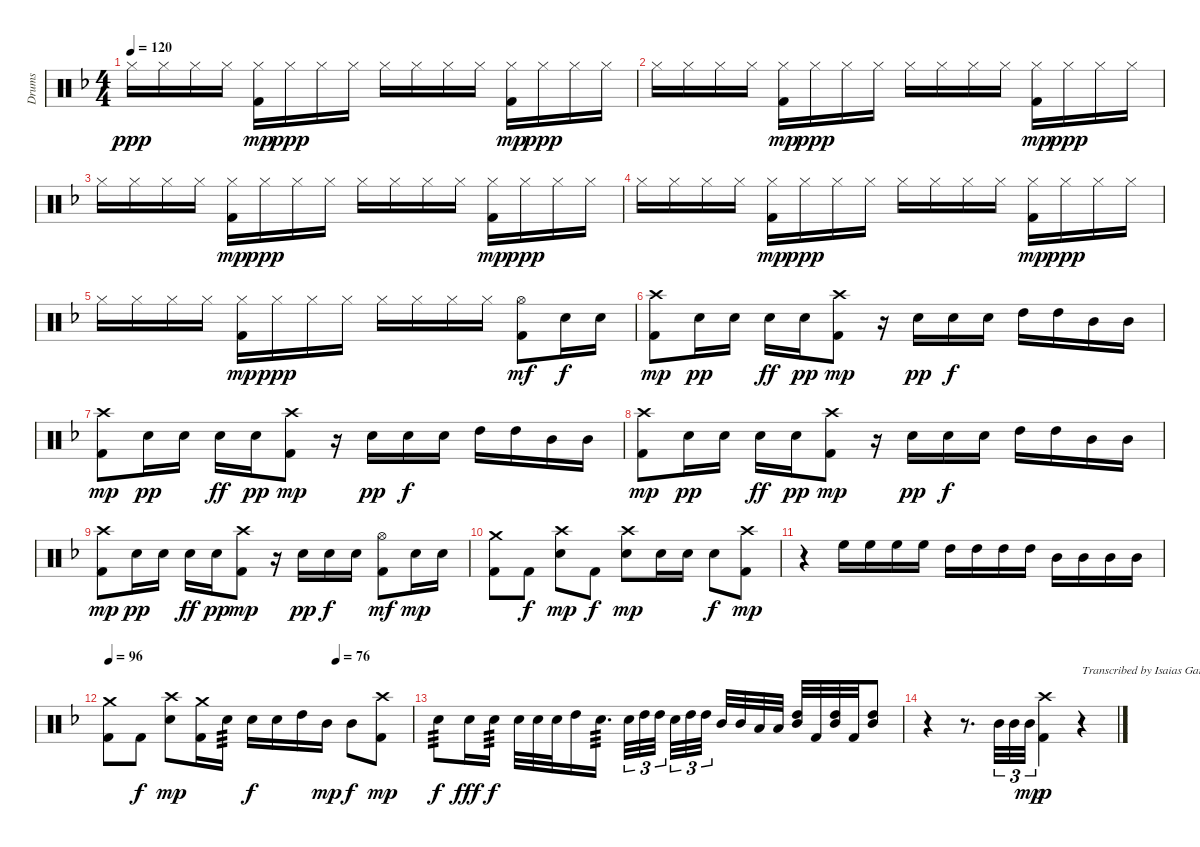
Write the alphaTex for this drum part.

\track ("Drums" "Drums") {instrument percussion}
\staff {score}
\articulation defaults
\ts (4 4)
\tempo 120
\clef neutral
\ks dminor "Hi-Hat (closed)".16{dy ppp} "Hi-Hat (closed)".16 "Hi-Hat (closed)".16 "Hi-Hat (closed)".16
("Hi-Hat (closed)" "Kick (hit) 2").16{dy mp} "Hi-Hat (closed)".16{dy ppp} "Hi-Hat (closed)".16 "Hi-Hat (closed)".16 "Hi-Hat (closed)".16 "Hi-Hat (closed)".16 "Hi-Hat (closed)".16 "Hi-Hat (closed)".16 ("Hi-Hat (closed)" "Kick (hit) 2").16{dy mp} "Hi-Hat (closed)".16{dy ppp} "Hi-Hat (closed)".16 "Hi-Hat (closed)".16 |
"Hi-Hat (closed)".16 "Hi-Hat (closed)".16 "Hi-Hat (closed)".16 "Hi-Hat (closed)".16 ("Hi-Hat (closed)" "Kick (hit) 2").16{dy mp} "Hi-Hat (closed)".16{dy ppp} "Hi-Hat (closed)".16 "Hi-Hat (closed)".16 "Hi-Hat (closed)".16 "Hi-Hat (closed)".16 "Hi-Hat (closed)".16 "Hi-Hat (closed)".16 ("Hi-Hat (closed)" "Kick (hit) 2").16{dy mp} "Hi-Hat (closed)".16{dy ppp} "Hi-Hat (closed)".16 "Hi-Hat (closed)".16 |
"Hi-Hat (closed)".16 "Hi-Hat (closed)".16 "Hi-Hat (closed)".16 "Hi-Hat (closed)".16 ("Hi-Hat (closed)" "Kick (hit) 2").16{dy mp} "Hi-Hat (closed)".16{dy ppp} "Hi-Hat (closed)".16 "Hi-Hat (closed)".16 "Hi-Hat (closed)".16 "Hi-Hat (closed)".16 "Hi-Hat (closed)".16 "Hi-Hat (closed)".16 ("Hi-Hat (closed)" "Kick (hit) 2").16{dy mp} "Hi-Hat (closed)".16{dy ppp} "Hi-Hat (closed)".16 "Hi-Hat (closed)".16 |
"Hi-Hat (closed)".16 "Hi-Hat (closed)".16 "Hi-Hat (closed)".16 "Hi-Hat (closed)".16 ("Hi-Hat (closed)" "Kick (hit) 2").16{dy mp} "Hi-Hat (closed)".16{dy ppp} "Hi-Hat (closed)".16 "Hi-Hat (closed)".16 "Hi-Hat (closed)".16 "Hi-Hat (closed)".16 "Hi-Hat (closed)".16 "Hi-Hat (closed)".16 ("Hi-Hat (closed)" "Kick (hit) 2").16{dy mp} "Hi-Hat (closed)".16{dy ppp} "Hi-Hat (closed)".16 "Hi-Hat (closed)".16 |
"Hi-Hat (closed)".16 "Hi-Hat (closed)".16 "Hi-Hat (closed)".16 "Hi-Hat (closed)".16 ("Hi-Hat (closed)" "Kick (hit) 2").16{dy mp} "Hi-Hat (closed)".16{dy ppp} "Hi-Hat (closed)".16 "Hi-Hat (closed)".16 "Hi-Hat (closed)".16 "Hi-Hat (closed)".16 "Hi-Hat (closed)".16 "Hi-Hat (closed)".16 ("Hi-Hat (open)" "Kick (hit) 2").8{dy mf} "Electric Snare (hit)".16{dy f} "Electric Snare (hit)".16 |
("Kick (hit) 2" "Crash high (hit)").8{dy mp} "Electric Snare (hit)".16{dy pp} "Electric Snare (hit)".16 "Electric Snare (hit)".16{dy ff} "Electric Snare (hit)".16{dy pp} ("Kick (hit) 2" "Crash high (hit)").8{dy mp} r.16 "Electric Snare (hit)".16{dy pp} "Electric Snare (hit)".16{dy f} "Electric Snare (hit)".16 "High Tom (hit)".16 "High Tom (hit)".16 "Mid Tom (hit)".16 "Mid Tom (hit)".16 |
("Kick (hit) 2" "Crash high (hit)").8{dy mp} "Electric Snare (hit)".16{dy pp} "Electric Snare (hit)".16 "Electric Snare (hit)".16{dy ff} "Electric Snare (hit)".16{dy pp} ("Kick (hit) 2" "Crash high (hit)").8{dy mp} r.16 "Electric Snare (hit)".16{dy pp} "Electric Snare (hit)".16{dy f} "Electric Snare (hit)".16 "High Tom (hit)".16 "High Tom (hit)".16 "Mid Tom (hit)".16 "Mid Tom (hit)".16 |
("Kick (hit) 2" "Crash high (hit)").8{dy mp} "Electric Snare (hit)".16{dy pp} "Electric Snare (hit)".16 "Electric Snare (hit)".16{dy ff} "Electric Snare (hit)".16{dy pp} ("Kick (hit) 2" "Crash high (hit)").8{dy mp} r.16 "Electric Snare (hit)".16{dy pp} "Electric Snare (hit)".16{dy f} "Electric Snare (hit)".16 "High Tom (hit)".16 "High Tom (hit)".16 "Mid Tom (hit)".16 "Mid Tom (hit)".16 |
("Kick (hit) 2" "Crash high (hit)").8{dy mp} "Electric Snare (hit)".16{dy pp} "Electric Snare (hit)".16 "Electric Snare (hit)".16{dy ff} "Electric Snare (hit)".16{dy pp} ("Kick (hit) 2" "Crash high (hit)").8{dy mp} r.16 "Electric Snare (hit)".16{dy pp} "Electric Snare (hit)".16{dy f} "Electric Snare (hit)".16 ("Kick (hit) 2" "Hi-Hat (open)").8{dy mf} "Electric Snare (hit)".16{dy mp} "Electric Snare (hit)".16 |
("Kick (hit) 2" "Crash medium (hit)").8 "Kick (hit) 2".8{dy f} ("Electric Snare (hit)" "Crash high (hit)").8{dy mp} "Kick (hit) 2".8{dy f} ("Electric Snare (hit)" "Crash high (hit)").8{dy mp} "Electric Snare (hit)".16 "Electric Snare (hit)".16 "Electric Snare (hit)".8{dy f} ("Kick (hit) 2" "Crash high (hit)").8{dy mp} |
r.4 "High Floor Tom (hit)".16 "High Floor Tom (hit)".16 "High Floor Tom (hit)".16 "High Floor Tom (hit)".16 "High Tom (hit)".16 "High Tom (hit)".16 "High Tom (hit)".16 "High Tom (hit)".16 "Mid Tom (hit)".16 "Mid Tom (hit)".16 "Mid Tom (hit)".16 "Mid Tom (hit)".16 |
\tempo 96
\tempo (76 0.75)
("Kick (hit) 2" "Crash medium (hit)").8 "Kick (hit) 2".8{dy f} ("Electric Snare (hit)" "Crash high (hit)").8{dy mp} ("Kick (hit) 2" "Crash medium (hit)").16 "Electric Snare (hit)".16{tp 3} "Electric Snare (hit)".16{dy f} "Electric Snare (hit)".16 "High Tom (hit)".16 "Mid Tom (hit)".16{dy mp} "Mid Tom (hit)".8{dy f} ("Kick (hit) 2" "Crash high (hit)").8{dy mp} |
"Electric Snare (hit)".8{tp 3 dy f} "Electric Snare (hit)".16{dy fff} "Electric Snare (hit)".16{tp 3 dy f} "Electric Snare (hit)".32 "Electric Snare (hit)".32 "Electric Snare (hit)".32 "High Tom (hit)".16 "Electric Snare (hit)".16{d tp 3} "Electric Snare (hit)".32{tu (3 2)} "High Tom (hit)".32{tu (3 2)} "High Tom (hit)".32{tu (3 2) beam splitsecondary} "Electric Snare (hit)".32{tu (3 2)} "High Tom (hit)".32{tu (3 2)} "High Tom (hit)".32{tu (3 2) beam splitsecondary} "Mid Tom (hit)".32 "Mid Tom (hit)".32 "Low Tom (hit)".32 "Low Tom (hit)".32 ("High Tom (hit)" "Mid Tom (hit)").32 "Kick (hit) 2".32 ("Mid Tom (hit)" "High Tom (hit)").32 "Kick (hit) 2".32 ("High Tom (hit)" "Mid Tom (hit)").8 |
r.4 r.8{d} "Mid Tom (hit)".32{tu (3 2)} "Mid Tom (hit)".32{tu (3 2)} "Mid Tom (hit)".32{tu (3 2) dy mp} ("Kick (hit) 2" "Crash high (hit)").4{dy p volume 0} r.4{txt "Transcribed by Isaias Garcia (TexasFury)"}
